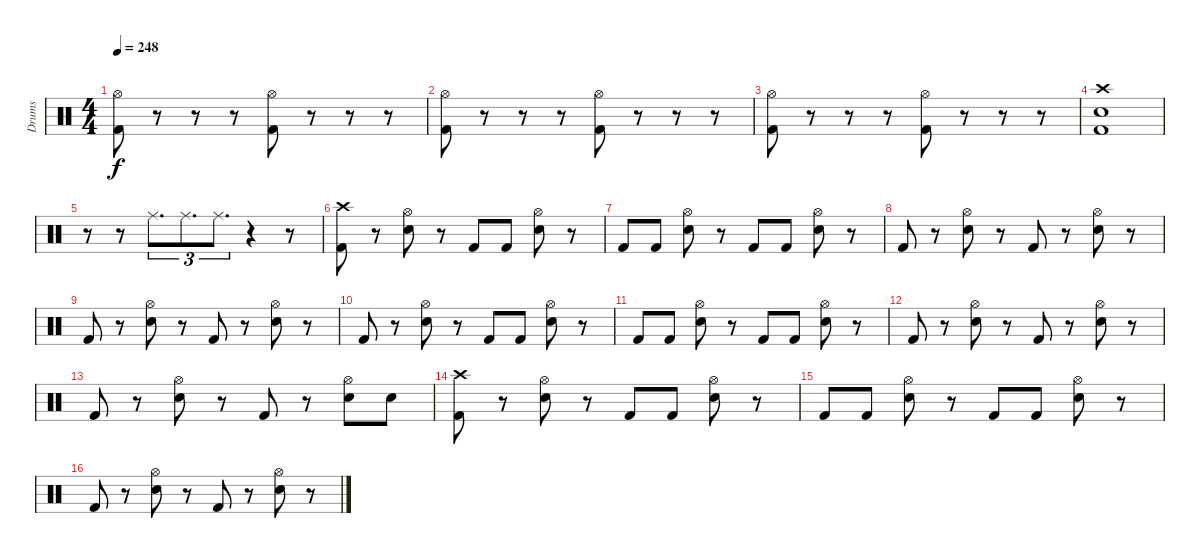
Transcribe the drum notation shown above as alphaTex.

\track ("Drums" "Drums") {instrument percussion}
\staff {score}
\articulation defaults
\ts (4 4)
\tempo 248
\clef neutral
\ks c
("Hi-Hat (open)" "Kick (hit) 2").8{dy f} r.8 r.8 r.8 ("Hi-Hat (open)" "Kick (hit) 2").8 r.8 r.8 r.8 |
("Hi-Hat (open)" "Kick (hit) 2").8 r.8 r.8 r.8 ("Hi-Hat (open)" "Kick (hit) 2").8 r.8 r.8 r.8 |
("Hi-Hat (open)" "Kick (hit) 2").8 r.8 r.8 r.8 ("Hi-Hat (open)" "Kick (hit) 2").8 r.8 r.8 r.8 |
("Crash high (hit)" "Kick (hit) 2" "Electric Snare (hit)").1 |
r.8 r.8 "Ride (middle)".8{d tu (3 2)} "Ride (middle)".8{d tu (3 2)} "Ride (middle)".8{d tu (3 2)} r.4 r.8 |
("Crash high (hit)" "Kick (hit) 2").8 r.8 ("Electric Snare (hit)" "Hi-Hat (open)").8 r.8 "Kick (hit) 2".8 "Kick (hit) 2".8 ("Electric Snare (hit)" "Hi-Hat (open)").8 r.8 |
"Kick (hit) 2".8 "Kick (hit) 2".8 ("Electric Snare (hit)" "Hi-Hat (open)").8 r.8 "Kick (hit) 2".8 "Kick (hit) 2".8 ("Electric Snare (hit)" "Hi-Hat (open)").8 r.8 |
"Kick (hit) 2".8 r.8 ("Electric Snare (hit)" "Hi-Hat (open)").8 r.8 "Kick (hit) 2".8 r.8 ("Electric Snare (hit)" "Hi-Hat (open)").8 r.8 |
"Kick (hit) 2".8 r.8 ("Electric Snare (hit)" "Hi-Hat (open)").8 r.8 "Kick (hit) 2".8 r.8 ("Electric Snare (hit)" "Hi-Hat (open)").8 r.8 |
"Kick (hit) 2".8 r.8 ("Electric Snare (hit)" "Hi-Hat (open)").8 r.8 "Kick (hit) 2".8 "Kick (hit) 2".8 ("Electric Snare (hit)" "Hi-Hat (open)").8 r.8 |
"Kick (hit) 2".8 "Kick (hit) 2".8 ("Electric Snare (hit)" "Hi-Hat (open)").8 r.8 "Kick (hit) 2".8 "Kick (hit) 2".8 ("Electric Snare (hit)" "Hi-Hat (open)").8 r.8 |
"Kick (hit) 2".8 r.8 ("Electric Snare (hit)" "Hi-Hat (open)").8 r.8 "Kick (hit) 2".8 r.8 ("Electric Snare (hit)" "Hi-Hat (open)").8 r.8 |
"Kick (hit) 2".8 r.8 ("Electric Snare (hit)" "Hi-Hat (open)").8 r.8 "Kick (hit) 2".8 r.8 ("Electric Snare (hit)" "Hi-Hat (open)").8 "Electric Snare (hit)".8 |
("Crash high (hit)" "Kick (hit) 2").8 r.8 ("Electric Snare (hit)" "Hi-Hat (open)").8 r.8 "Kick (hit) 2".8 "Kick (hit) 2".8 ("Electric Snare (hit)" "Hi-Hat (open)").8 r.8 |
"Kick (hit) 2".8 "Kick (hit) 2".8 ("Electric Snare (hit)" "Hi-Hat (open)").8 r.8 "Kick (hit) 2".8 "Kick (hit) 2".8 ("Electric Snare (hit)" "Hi-Hat (open)").8 r.8 |
"Kick (hit) 2".8 r.8 ("Electric Snare (hit)" "Hi-Hat (open)").8 r.8 "Kick (hit) 2".8 r.8 ("Electric Snare (hit)" "Hi-Hat (open)").8 r.8
